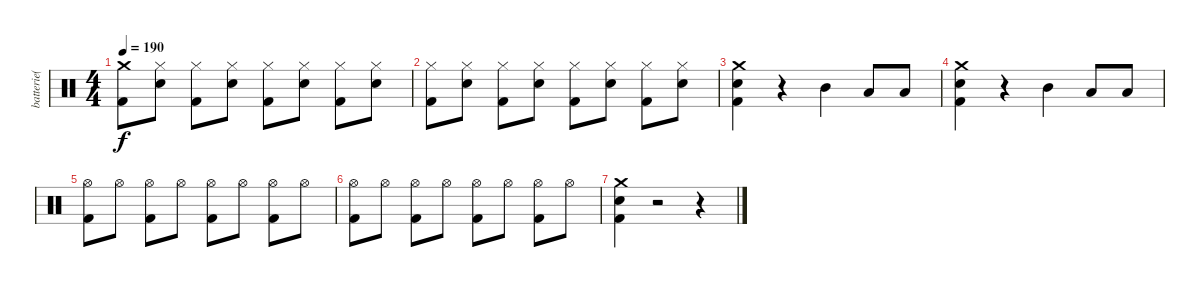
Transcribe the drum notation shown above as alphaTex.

\track ("batterie( Byron McMackin )" "batterie( ") {instrument percussion}
\staff {score}
\articulation defaults
\ts (4 4)
\tempo 190
\clef neutral
\ks c
("Crash medium (hit)" "Kick (hit) 2").8{dy f} ("Hi-Hat (closed)" "Snare (hit) 2").8 ("Hi-Hat (closed)" "Kick (hit) 2").8 ("Hi-Hat (closed)" "Snare (hit) 2").8 ("Hi-Hat (closed)" "Kick (hit) 2").8 ("Hi-Hat (closed)" "Snare (hit) 2").8 ("Hi-Hat (closed)" "Kick (hit) 2").8 ("Hi-Hat (closed)" "Snare (hit) 2").8 |
("Hi-Hat (closed)" "Kick (hit) 2").8 ("Hi-Hat (closed)" "Snare (hit) 2").8 ("Hi-Hat (closed)" "Kick (hit) 2").8 ("Hi-Hat (closed)" "Snare (hit) 2").8 ("Hi-Hat (closed)" "Kick (hit) 2").8 ("Hi-Hat (closed)" "Snare (hit) 2").8 ("Hi-Hat (closed)" "Kick (hit) 2").8 ("Hi-Hat (closed)" "Snare (hit) 2").8 |
("Crash medium (hit)" "Snare (hit) 2" "Kick (hit) 2").4 r.4 "Mid Tom (hit)".4 "Low Tom (hit)".8 "Low Floor Tom (hit)".8 |
("Crash medium (hit)" "Snare (hit) 2" "Kick (hit) 2").4 r.4 "Mid Tom (hit)".4 "Low Tom (hit)".8 "Low Floor Tom (hit)".8 |
("Hi-Hat (open)" "Kick (hit) 2").8 "Hi-Hat (open)".8 ("Hi-Hat (open)" "Kick (hit) 2").8 "Hi-Hat (open)".8 ("Hi-Hat (open)" "Kick (hit) 2").8 "Hi-Hat (open)".8 ("Hi-Hat (open)" "Kick (hit) 2").8 "Hi-Hat (open)".8 |
("Hi-Hat (open)" "Kick (hit) 2").8 "Hi-Hat (open)".8 ("Hi-Hat (open)" "Kick (hit) 2").8 "Hi-Hat (open)".8 ("Hi-Hat (open)" "Kick (hit) 2").8 "Hi-Hat (open)".8 ("Hi-Hat (open)" "Kick (hit) 2").8 "Hi-Hat (open)".8 |
("Crash medium (hit)" "Snare (hit) 2" "Kick (hit) 2").4 r.2 r.4
